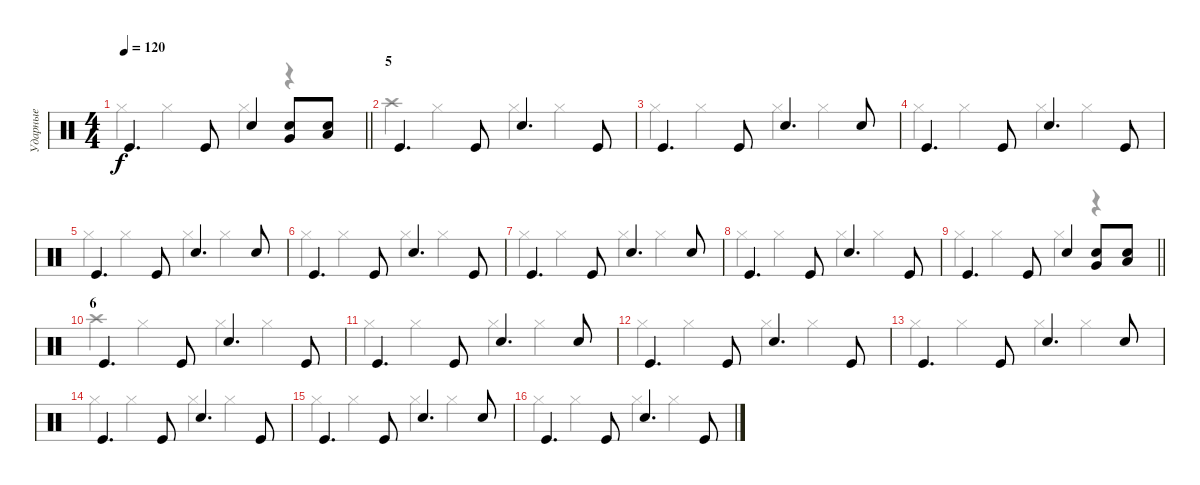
\track ("Ударные" "Ударные") {instrument percussion}
\staff {score}
\articulation defaults
\voice
\ts (4 4)
\tempo 120
\clef neutral
\barLineRight lightlight
\ks c "Kick (hit)".4{d dy f} "Kick (hit)".8 "Snare (hit) 2".4
("Snare (hit) 2" "Very Low Tom (hit)").8 ("Snare (hit) 2" "Low Floor Tom (hit)").8 |
\section ("" "5")
"Kick (hit)".4{d} "Kick (hit)".8 "Snare (hit) 2".4{d} "Kick (hit)".8 |
"Kick (hit)".4{d} "Kick (hit)".8 "Snare (hit) 2".4{d} "Snare (hit) 2".8 |
"Kick (hit)".4{d} "Kick (hit)".8 "Snare (hit) 2".4{d} "Kick (hit)".8 |
"Kick (hit)".4{d} "Kick (hit)".8 "Snare (hit) 2".4{d} "Snare (hit) 2".8 |
"Kick (hit)".4{d} "Kick (hit)".8 "Snare (hit) 2".4{d} "Kick (hit)".8 |
"Kick (hit)".4{d} "Kick (hit)".8 "Snare (hit) 2".4{d} "Snare (hit) 2".8 |
"Kick (hit)".4{d} "Kick (hit)".8 "Snare (hit) 2".4{d} "Kick (hit)".8 |
\barLineRight lightlight "Kick (hit)".4{d} "Kick (hit)".8 "Snare (hit) 2".4
("Snare (hit) 2" "Very Low Tom (hit)").8 ("Snare (hit) 2" "Low Floor Tom (hit)").8 |
\section ("" "6")
"Kick (hit)".4{d} "Kick (hit)".8 "Snare (hit) 2".4{d} "Kick (hit)".8 |
"Kick (hit)".4{d} "Kick (hit)".8 "Snare (hit) 2".4{d} "Snare (hit) 2".8 |
"Kick (hit)".4{d} "Kick (hit)".8 "Snare (hit) 2".4{d} "Kick (hit)".8 |
"Kick (hit)".4{d} "Kick (hit)".8 "Snare (hit) 2".4{d} "Snare (hit) 2".8 |
"Kick (hit)".4{d} "Kick (hit)".8 "Snare (hit) 2".4{d} "Kick (hit)".8 |
"Kick (hit)".4{d} "Kick (hit)".8 "Snare (hit) 2".4{d} "Snare (hit) 2".8 |
"Kick (hit)".4{d} "Kick (hit)".8 "Snare (hit) 2".4{d} "Kick (hit)".8
\voice
\clef neutral
\ottava regular
\simile none
\barLineRight lightlight
\ks c "Hi-Hat (closed)".4{dy f} "Hi-Hat (closed)".4 "Hi-Hat (closed)".4
r.4 |
"Crash high (hit)".4 "Hi-Hat (closed)".4 "Hi-Hat (closed)".4 "Hi-Hat (closed)".4 |
"Hi-Hat (closed)".4 "Hi-Hat (closed)".4 "Hi-Hat (closed)".4 "Hi-Hat (closed)".4 |
"Hi-Hat (closed)".4 "Hi-Hat (closed)".4 "Hi-Hat (closed)".4 "Hi-Hat (closed)".4 |
"Hi-Hat (closed)".4 "Hi-Hat (closed)".4 "Hi-Hat (closed)".4 "Hi-Hat (closed)".4 |
"Hi-Hat (closed)".4 "Hi-Hat (closed)".4 "Hi-Hat (closed)".4 "Hi-Hat (closed)".4 |
"Hi-Hat (closed)".4 "Hi-Hat (closed)".4 "Hi-Hat (closed)".4 "Hi-Hat (closed)".4 |
"Hi-Hat (closed)".4 "Hi-Hat (closed)".4 "Hi-Hat (closed)".4 "Hi-Hat (closed)".4 |
\barLineRight lightlight "Hi-Hat (closed)".4 "Hi-Hat (closed)".4 "Hi-Hat (closed)".4
r.4 |
"Crash high (hit)".4 "Hi-Hat (closed)".4 "Hi-Hat (closed)".4 "Hi-Hat (closed)".4 |
"Hi-Hat (closed)".4 "Hi-Hat (closed)".4 "Hi-Hat (closed)".4 "Hi-Hat (closed)".4 |
"Hi-Hat (closed)".4 "Hi-Hat (closed)".4 "Hi-Hat (closed)".4 "Hi-Hat (closed)".4 |
"Hi-Hat (closed)".4 "Hi-Hat (closed)".4 "Hi-Hat (closed)".4 "Hi-Hat (closed)".4 |
"Hi-Hat (closed)".4 "Hi-Hat (closed)".4 "Hi-Hat (closed)".4 "Hi-Hat (closed)".4 |
"Hi-Hat (closed)".4 "Hi-Hat (closed)".4 "Hi-Hat (closed)".4 "Hi-Hat (closed)".4 |
"Hi-Hat (closed)".4 "Hi-Hat (closed)".4 "Hi-Hat (closed)".4 "Hi-Hat (closed)".4
